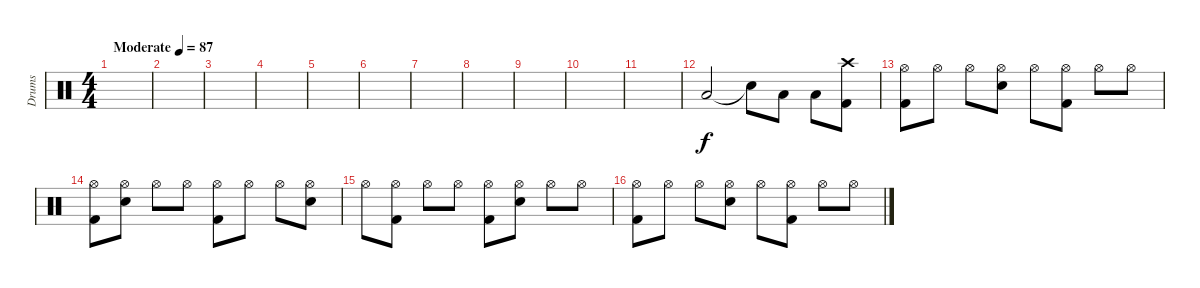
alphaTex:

\track ("Drums" "Drums") {instrument percussion}
\staff {score}
\articulation defaults
\ts (4 4)
\tempo (87 "Moderate")
\clef neutral
\ks c
|
|
|
|
|
|
|
|
|
|
|
"Low Floor Tom (hit)".2 "Snare (hit)"{t}.8 "Low Floor Tom (hit)".8 "Low Tom (hit)".8 ("Crash high (hit)" "Kick (hit) 2").8 |
("Hi-Hat (open)" "Kick (hit) 2").8 "Hi-Hat (open)".8 "Hi-Hat (open)".8 ("Hi-Hat (open)" "Electric Snare (hit)").8 "Hi-Hat (open)".8 ("Hi-Hat (open)" "Kick (hit) 2").8 "Hi-Hat (open)".8 "Hi-Hat (open)".8 |
("Hi-Hat (open)" "Kick (hit) 2").8 ("Hi-Hat (open)" "Electric Snare (hit)").8 "Hi-Hat (open)".8 "Hi-Hat (open)".8 ("Hi-Hat (open)" "Kick (hit) 2").8 "Hi-Hat (open)".8 "Hi-Hat (open)".8 ("Hi-Hat (open)" "Electric Snare (hit)").8 |
"Hi-Hat (open)".8 ("Hi-Hat (open)" "Kick (hit) 2").8 "Hi-Hat (open)".8 "Hi-Hat (open)".8 ("Hi-Hat (open)" "Kick (hit) 2").8 ("Hi-Hat (open)" "Electric Snare (hit)").8 "Hi-Hat (open)".8 "Hi-Hat (open)".8 |
("Hi-Hat (open)" "Kick (hit) 2").8 "Hi-Hat (open)".8 "Hi-Hat (open)".8 ("Hi-Hat (open)" "Electric Snare (hit)").8 "Hi-Hat (open)".8 ("Hi-Hat (open)" "Kick (hit) 2").8 "Hi-Hat (open)".8 "Hi-Hat (open)".8
